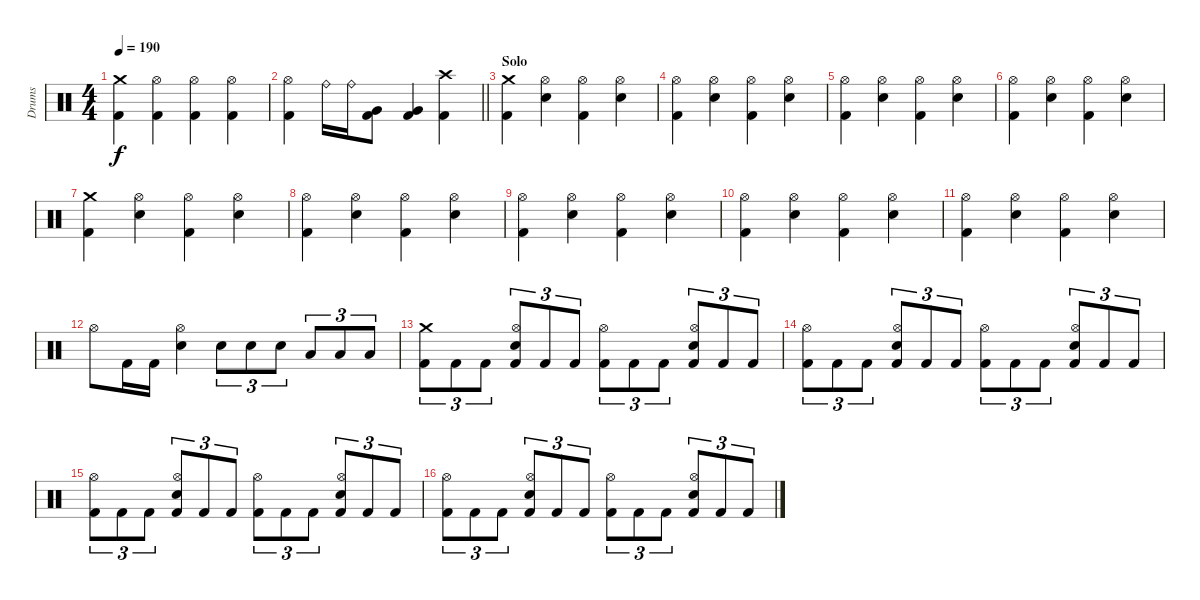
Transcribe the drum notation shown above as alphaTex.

\track ("Drums" "Drums") {instrument percussion}
\staff {score}
\articulation defaults
\ts (4 4)
\tempo 190
\clef neutral
\ks c
("Crash medium (hit)" "Kick (hit) 2").4{dy f} ("Hi-Hat (open)" "Kick (hit) 2").4 ("Hi-Hat (open)" "Kick (hit) 2").4 ("Hi-Hat (open)" "Kick (hit) 2").4 |
\barLineRight lightlight
("Hi-Hat (open)" "Kick (hit) 2").4 "Ride (bell)".16 "Ride (bell)".16 ("Very Low Tom (hit)" "Kick (hit) 2").8 ("Very Low Tom (hit)" "Kick (hit) 2").4 ("Crash high (hit)" "Kick (hit) 2").4 |
\section ("" "Solo")
("Crash medium (hit)" "Kick (hit) 2").4 ("Hi-Hat (open)" "Snare (hit) 2").4 ("Hi-Hat (open)" "Kick (hit) 2").4 ("Hi-Hat (open)" "Snare (hit) 2").4 |
("Hi-Hat (open)" "Kick (hit) 2").4 ("Hi-Hat (open)" "Snare (hit) 2").4 ("Hi-Hat (open)" "Kick (hit) 2").4 ("Hi-Hat (open)" "Snare (hit) 2").4 |
("Hi-Hat (open)" "Kick (hit) 2").4 ("Hi-Hat (open)" "Snare (hit) 2").4 ("Hi-Hat (open)" "Kick (hit) 2").4 ("Hi-Hat (open)" "Snare (hit) 2").4 |
("Hi-Hat (open)" "Kick (hit) 2").4 ("Hi-Hat (open)" "Snare (hit) 2").4 ("Hi-Hat (open)" "Kick (hit) 2").4 ("Hi-Hat (open)" "Snare (hit) 2").4 |
("Crash medium (hit)" "Kick (hit) 2").4 ("Hi-Hat (open)" "Snare (hit) 2").4 ("Hi-Hat (open)" "Kick (hit) 2").4 ("Hi-Hat (open)" "Snare (hit) 2").4 |
("Hi-Hat (open)" "Kick (hit) 2").4 ("Hi-Hat (open)" "Snare (hit) 2").4 ("Hi-Hat (open)" "Kick (hit) 2").4 ("Hi-Hat (open)" "Snare (hit) 2").4 |
("Hi-Hat (open)" "Kick (hit) 2").4 ("Hi-Hat (open)" "Snare (hit) 2").4 ("Hi-Hat (open)" "Kick (hit) 2").4 ("Hi-Hat (open)" "Snare (hit) 2").4 |
("Hi-Hat (open)" "Kick (hit) 2").4 ("Hi-Hat (open)" "Snare (hit) 2").4 ("Hi-Hat (open)" "Kick (hit) 2").4 ("Hi-Hat (open)" "Snare (hit) 2").4 |
("Hi-Hat (open)" "Kick (hit) 2").4 ("Hi-Hat (open)" "Snare (hit) 2").4 ("Hi-Hat (open)" "Kick (hit) 2").4 ("Hi-Hat (open)" "Snare (hit) 2").4 |
"Hi-Hat (open)".8 "Kick (hit) 2".16 "Kick (hit) 2".16 ("Hi-Hat (open)" "Snare (hit) 2").4 "Snare (hit) 2".8{tu (3 2)} "Snare (hit) 2".8{tu (3 2)} "Snare (hit) 2".8{tu (3 2)} "Low Tom (hit)".8{tu (3 2)} "Low Tom (hit)".8{tu (3 2)} "Low Tom (hit)".8{tu (3 2)} |
("Crash medium (hit)" "Kick (hit) 2").8{tu (3 2)} "Kick (hit) 2".8{tu (3 2)} "Kick (hit) 2".8{tu (3 2)} ("Hi-Hat (open)" "Snare (hit) 2" "Kick (hit) 2").8{tu (3 2)} "Kick (hit) 2".8{tu (3 2)} "Kick (hit) 2".8{tu (3 2)} ("Hi-Hat (open)" "Kick (hit) 2").8{tu (3 2)} "Kick (hit) 2".8{tu (3 2)} "Kick (hit) 2".8{tu (3 2)} ("Hi-Hat (open)" "Snare (hit) 2" "Kick (hit) 2").8{tu (3 2)} "Kick (hit) 2".8{tu (3 2)} "Kick (hit) 2".8{tu (3 2)} |
("Hi-Hat (open)" "Kick (hit) 2").8{tu (3 2)} "Kick (hit) 2".8{tu (3 2)} "Kick (hit) 2".8{tu (3 2)} ("Hi-Hat (open)" "Snare (hit) 2" "Kick (hit) 2").8{tu (3 2)} "Kick (hit) 2".8{tu (3 2)} "Kick (hit) 2".8{tu (3 2)} ("Hi-Hat (open)" "Kick (hit) 2").8{tu (3 2)} "Kick (hit) 2".8{tu (3 2)} "Kick (hit) 2".8{tu (3 2)} ("Hi-Hat (open)" "Snare (hit) 2" "Kick (hit) 2").8{tu (3 2)} "Kick (hit) 2".8{tu (3 2)} "Kick (hit) 2".8{tu (3 2)} |
("Hi-Hat (open)" "Kick (hit) 2").8{tu (3 2)} "Kick (hit) 2".8{tu (3 2)} "Kick (hit) 2".8{tu (3 2)} ("Hi-Hat (open)" "Snare (hit) 2" "Kick (hit) 2").8{tu (3 2)} "Kick (hit) 2".8{tu (3 2)} "Kick (hit) 2".8{tu (3 2)} ("Hi-Hat (open)" "Kick (hit) 2").8{tu (3 2)} "Kick (hit) 2".8{tu (3 2)} "Kick (hit) 2".8{tu (3 2)} ("Hi-Hat (open)" "Snare (hit) 2" "Kick (hit) 2").8{tu (3 2)} "Kick (hit) 2".8{tu (3 2)} "Kick (hit) 2".8{tu (3 2)} |
("Hi-Hat (open)" "Kick (hit) 2").8{tu (3 2)} "Kick (hit) 2".8{tu (3 2)} "Kick (hit) 2".8{tu (3 2)} ("Hi-Hat (open)" "Snare (hit) 2" "Kick (hit) 2").8{tu (3 2)} "Kick (hit) 2".8{tu (3 2)} "Kick (hit) 2".8{tu (3 2)} ("Hi-Hat (open)" "Kick (hit) 2").8{tu (3 2)} "Kick (hit) 2".8{tu (3 2)} "Kick (hit) 2".8{tu (3 2)} ("Hi-Hat (open)" "Snare (hit) 2" "Kick (hit) 2").8{tu (3 2)} "Kick (hit) 2".8{tu (3 2)} "Kick (hit) 2".8{tu (3 2)}
